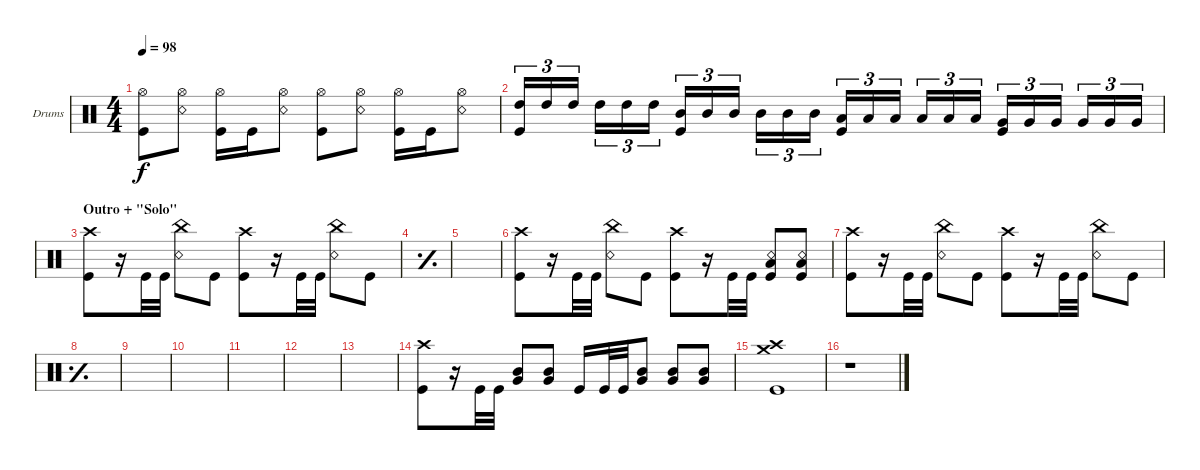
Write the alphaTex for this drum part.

\defaultSystemsLayout 4
\bracketExtendMode groupsimilarinstruments
\firstSystemTrackNameOrientation horizontal
\otherSystemsTrackNameOrientation horizontal
\track ("Drumkit" "Drums") {instrument percussion}
\staff {score}
\articulation defaults
\ts (4 4)
\tempo 98
\clef neutral
\ks c
("Kick (hit)" "Hi-Hat (open)").8{dy f} ("Snare (rim shot)" "Hi-Hat (open)").8 ("Kick (hit)" "Hi-Hat (open)").16 "Kick (hit)".16 ("Snare (rim shot)" "Hi-Hat (open)").8 ("Kick (hit)" "Hi-Hat (open)").8 ("Snare (rim shot)" "Hi-Hat (open)").8 ("Kick (hit)" "Hi-Hat (open)").16 "Kick (hit)".16 ("Snare (rim shot)" "Hi-Hat (open)").8 |
("High Tom (hit)" "Kick (hit)").16{tu (3 2)} "High Tom (hit)".16{tu (3 2)} "High Tom (hit)".16{tu (3 2)} "High Tom (hit)".16{tu (3 2)} "High Tom (hit)".16{tu (3 2)} "High Tom (hit)".16{tu (3 2)} ("Kick (hit)" "Mid Tom (hit)").16{tu (3 2)} "Mid Tom (hit)".16{tu (3 2)} "Mid Tom (hit)".16{tu (3 2)} "Mid Tom (hit)".16{tu (3 2)} "Mid Tom (hit)".16{tu (3 2)} "Mid Tom (hit)".16{tu (3 2)} ("Kick (hit)" "Low Tom (hit)").16{tu (3 2)} "Low Tom (hit)".16{tu (3 2)} "Low Tom (hit)".16{tu (3 2)} "Low Tom (hit)".16{tu (3 2)} "Low Tom (hit)".16{tu (3 2)} "Low Tom (hit)".16{tu (3 2)} ("Kick (hit)" "Very Low Tom (hit)").16{tu (3 2)} "Very Low Tom (hit)".16{tu (3 2)} "Very Low Tom (hit)".16{tu (3 2)} "Very Low Tom (hit)".16{tu (3 2)} "Very Low Tom (hit)".16{tu (3 2)} "Very Low Tom (hit)".16{tu (3 2)} |
\section ("" "Outro + \"Solo\"")
("Kick (hit)" "Crash high (hit)").8 r.16 "Kick (hit)".32 "Kick (hit)".32 ("China (hit)" "Snare (rim shot)").8 "Kick (hit)".8 ("Crash high (hit)" "Kick (hit)").8 r.16 "Kick (hit)".32 "Kick (hit)".32 ("China (hit)" "Snare (rim shot)").8 "Kick (hit)".8 |
\simile simple
|
|
\simile none
("Kick (hit)" "Crash high (hit)").8 r.16 "Kick (hit)".32 "Kick (hit)".32 ("China (hit)" "Snare (rim shot)").8 "Kick (hit)".8 ("Crash high (hit)" "Kick (hit)").8 r.16 "Kick (hit)".32 "Kick (hit)".32 ("Kick (hit)" "Low Tom (hit)" "Snare (rim shot)").8 ("Kick (hit)" "Low Tom (hit)" "Snare (rim shot)").8 |
("Kick (hit)" "Crash high (hit)").8 r.16 "Kick (hit)".32 "Kick (hit)".32 ("China (hit)" "Snare (rim shot)").8 "Kick (hit)".8 ("Crash high (hit)" "Kick (hit)").8 r.16 "Kick (hit)".32 "Kick (hit)".32 ("China (hit)" "Snare (rim shot)").8 "Kick (hit)".8 |
\simile simple
|
|
|
|
|
|
\simile none
("Kick (hit)" "Crash high (hit)").8 r.16 "Kick (hit)".32 "Kick (hit)".32 ("Very Low Tom (hit)" "Mid Tom (hit)").8 ("Mid Tom (hit)" "Very Low Tom (hit)").8 "Kick (hit)".16 "Kick (hit)".32 "Kick (hit)".32 ("Very Low Tom (hit)" "Mid Tom (hit)").8 ("Very Low Tom (hit)" "Mid Tom (hit)").8 ("Very Low Tom (hit)" "Mid Tom (hit)").8 |
("Kick (hit)" "Crash high (hit)" "Crash medium (hit)").1 |
r.1
